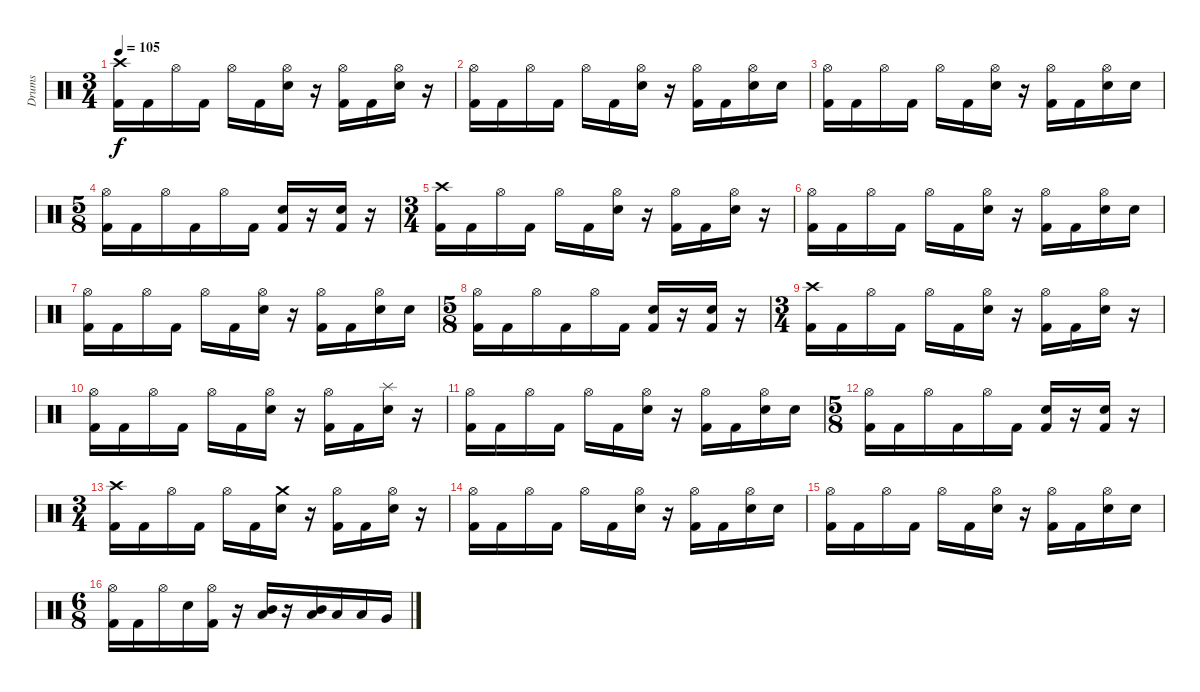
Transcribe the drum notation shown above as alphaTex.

\track ("Drums" "Drums") {instrument percussion}
\staff {score}
\articulation defaults
\ts (3 4)
\tempo 105
\clef neutral
\ks c
("Crash high (hit)" "Kick (hit) 2").16{dy f} "Kick (hit) 2".16 "Hi-Hat (open)".16 "Kick (hit) 2".16 "Hi-Hat (open)".16 "Kick (hit) 2".16 ("Hi-Hat (open)" "Electric Snare (hit)").16 r.16 ("Hi-Hat (open)" "Kick (hit) 2").16 "Kick (hit) 2".16 ("Hi-Hat (open)" "Electric Snare (hit)").16 r.16 |
("Hi-Hat (open)" "Kick (hit) 2").16 "Kick (hit) 2".16 "Hi-Hat (open)".16 "Kick (hit) 2".16 "Hi-Hat (open)".16 "Kick (hit) 2".16 ("Hi-Hat (open)" "Electric Snare (hit)").16 r.16 ("Hi-Hat (open)" "Kick (hit) 2").16 "Kick (hit) 2".16 ("Hi-Hat (open)" "Electric Snare (hit)").16 "Electric Snare (hit)".16 |
("Hi-Hat (open)" "Kick (hit) 2").16 "Kick (hit) 2".16 "Hi-Hat (open)".16 "Kick (hit) 2".16 "Hi-Hat (open)".16 "Kick (hit) 2".16 ("Hi-Hat (open)" "Electric Snare (hit)").16 r.16 ("Hi-Hat (open)" "Kick (hit) 2").16 "Kick (hit) 2".16 ("Hi-Hat (open)" "Electric Snare (hit)").16 "Electric Snare (hit)".16 |
\ts (5 8)
("Hi-Hat (open)" "Kick (hit) 2").16 "Kick (hit) 2".16 "Hi-Hat (open)".16 "Kick (hit) 2".16 "Hi-Hat (open)".16 "Kick (hit) 2".16 ("Electric Snare (hit)" "Kick (hit) 2").16 r.16 ("Electric Snare (hit)" "Kick (hit) 2").16 r.16 |
\ts (3 4)
("Crash high (hit)" "Kick (hit) 2").16 "Kick (hit) 2".16 "Hi-Hat (open)".16 "Kick (hit) 2".16 "Hi-Hat (open)".16 "Kick (hit) 2".16 ("Hi-Hat (open)" "Electric Snare (hit)").16 r.16 ("Hi-Hat (open)" "Kick (hit) 2").16 "Kick (hit) 2".16 ("Hi-Hat (open)" "Electric Snare (hit)").16 r.16 |
("Hi-Hat (open)" "Kick (hit) 2").16 "Kick (hit) 2".16 "Hi-Hat (open)".16 "Kick (hit) 2".16 "Hi-Hat (open)".16 "Kick (hit) 2".16 ("Hi-Hat (open)" "Electric Snare (hit)").16 r.16 ("Hi-Hat (open)" "Kick (hit) 2").16 "Kick (hit) 2".16 ("Hi-Hat (open)" "Electric Snare (hit)").16 "Electric Snare (hit)".16 |
("Hi-Hat (open)" "Kick (hit) 2").16 "Kick (hit) 2".16 "Hi-Hat (open)".16 "Kick (hit) 2".16 "Hi-Hat (open)".16 "Kick (hit) 2".16 ("Hi-Hat (open)" "Electric Snare (hit)").16 r.16 ("Hi-Hat (open)" "Kick (hit) 2").16 "Kick (hit) 2".16 ("Hi-Hat (open)" "Electric Snare (hit)").16 "Electric Snare (hit)".16 |
\ts (5 8)
("Hi-Hat (open)" "Kick (hit) 2").16 "Kick (hit) 2".16 "Hi-Hat (open)".16 "Kick (hit) 2".16 "Hi-Hat (open)".16 "Kick (hit) 2".16 ("Electric Snare (hit)" "Kick (hit) 2").16 r.16 ("Electric Snare (hit)" "Kick (hit) 2").16 r.16 |
\ts (3 4)
("Crash high (hit)" "Kick (hit) 2").16 "Kick (hit) 2".16 "Hi-Hat (open)".16 "Kick (hit) 2".16 "Hi-Hat (open)".16 "Kick (hit) 2".16 ("Hi-Hat (open)" "Electric Snare (hit)").16 r.16 ("Hi-Hat (open)" "Kick (hit) 2").16 "Kick (hit) 2".16 ("Hi-Hat (open)" "Electric Snare (hit)").16 r.16 |
("Hi-Hat (open)" "Kick (hit) 2").16 "Kick (hit) 2".16 "Hi-Hat (open)".16 "Kick (hit) 2".16 "Hi-Hat (open)".16 "Kick (hit) 2".16 ("Hi-Hat (open)" "Electric Snare (hit)").16 r.16 ("Hi-Hat (open)" "Kick (hit) 2").16 "Kick (hit) 2".16 ("Splash (hit)" "Electric Snare (hit)").16 r.16 |
("Hi-Hat (open)" "Kick (hit) 2").16 "Kick (hit) 2".16 "Hi-Hat (open)".16 "Kick (hit) 2".16 "Hi-Hat (open)".16 "Kick (hit) 2".16 ("Hi-Hat (open)" "Electric Snare (hit)").16 r.16 ("Hi-Hat (open)" "Kick (hit) 2").16 "Kick (hit) 2".16 ("Hi-Hat (open)" "Electric Snare (hit)").16 "Electric Snare (hit)".16 |
\ts (5 8)
("Hi-Hat (open)" "Kick (hit) 2").16 "Kick (hit) 2".16 "Hi-Hat (open)".16 "Kick (hit) 2".16 "Hi-Hat (open)".16 "Kick (hit) 2".16 ("Electric Snare (hit)" "Kick (hit) 2").16 r.16 ("Electric Snare (hit)" "Kick (hit) 2").16 r.16 |
\ts (3 4)
("Crash high (hit)" "Kick (hit) 2").16 "Kick (hit) 2".16 "Hi-Hat (open)".16 "Kick (hit) 2".16 "Hi-Hat (open)".16 "Kick (hit) 2".16 ("Crash medium (hit)" "Electric Snare (hit)").16 r.16 ("Hi-Hat (open)" "Kick (hit) 2").16 "Kick (hit) 2".16 ("Hi-Hat (open)" "Electric Snare (hit)").16 r.16 |
("Hi-Hat (open)" "Kick (hit) 2").16 "Kick (hit) 2".16 "Hi-Hat (open)".16 "Kick (hit) 2".16 "Hi-Hat (open)".16 "Kick (hit) 2".16 ("Hi-Hat (open)" "Electric Snare (hit)").16 r.16 ("Hi-Hat (open)" "Kick (hit) 2").16 "Kick (hit) 2".16 ("Hi-Hat (open)" "Electric Snare (hit)").16 "Electric Snare (hit)".16 |
("Hi-Hat (open)" "Kick (hit) 2").16 "Kick (hit) 2".16 "Hi-Hat (open)".16 "Kick (hit) 2".16 "Hi-Hat (open)".16 "Kick (hit) 2".16 ("Hi-Hat (open)" "Electric Snare (hit)").16 r.16 ("Hi-Hat (open)" "Kick (hit) 2").16 "Kick (hit) 2".16 ("Hi-Hat (open)" "Electric Snare (hit)").16 "Electric Snare (hit)".16 |
\ts (6 8)
("Hi-Hat (open)" "Kick (hit) 2").16 "Kick (hit) 2".16 "Hi-Hat (open)".16 "Electric Snare (hit)".16 ("Hi-Hat (open)" "Kick (hit) 2").16 r.16 ("Mid Tom (hit)" "Low Tom (hit)").16 r.16 ("Mid Tom (hit)" "Low Tom (hit)").16 "Low Tom (hit)".16 "Low Tom (hit)".16 "Very Low Tom (hit)".16
